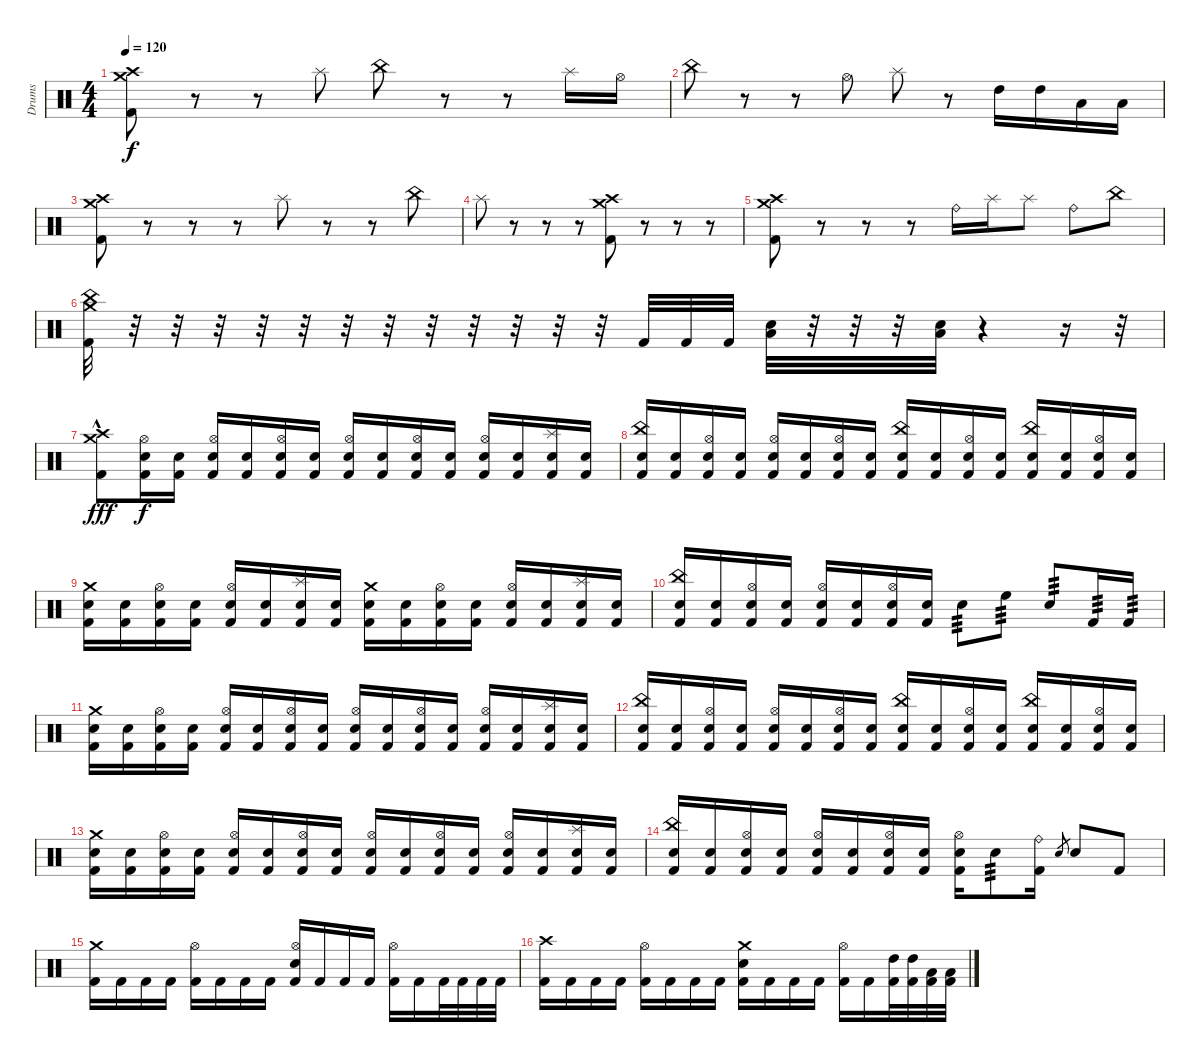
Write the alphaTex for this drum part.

\track ("Drums" "Drums") {instrument percussion}
\staff {score}
\articulation defaults
\ts (4 4)
\tempo 120
\clef neutral
\ks c
("Crash medium (hit)" "Crash high (hit)" "Kick (hit) 2").8{dy f} r.8 r.8 "Splash (hit)".8 "China (hit)".8 r.8 r.8 "Splash (hit)".16 "Hi-Hat (open)".16 |
"China (hit)".8 r.8 r.8 "Hi-Hat (open)".8 "Splash (hit)".8 r.8 "High Tom (hit)".16 "High Tom (hit)".16 "Low Tom (hit)".16 "Low Tom (hit)".16 |
("Crash medium (hit)" "Crash high (hit)" "Kick (hit) 2").8 r.8 r.8 r.8 "Splash (hit)".8 r.8 r.8 "China (hit)".8 |
"Splash (hit)".8 r.8 r.8 r.8 ("Crash medium (hit)" "Crash high (hit)" "Kick (hit) 2").8 r.8 r.8 r.8 |
("Crash medium (hit)" "Crash high (hit)" "Kick (hit) 2").8 r.8 r.8 r.8 "Ride (bell)".16 "Splash (hit)".16 "Splash (hit)".8 "Ride (bell)".8 "China (hit)".8 |
("Crash medium (hit)" "China (hit)" "Kick (hit) 2").32 r.32 r.32 r.32 r.32 r.32 r.32 r.32 r.32 r.32 r.32 r.32 r.32 "Kick (hit) 2".32 "Kick (hit) 2".32 "Kick (hit) 2".32 ("Electric Snare (hit)" "Low Tom (hit)").32 r.32 r.32 r.32 ("Electric Snare (hit)" "Low Tom (hit)").32 r.4 r.16 r.32 |
("Crash high (hit)"{hac} "Crash medium (hit)"{hac} "Kick (hit) 2"{hac}).8{dy fff} ("Hi-Hat (open)" "Electric Snare (hit)" "Kick (hit) 2").16{dy f} ("Electric Snare (hit)" "Kick (hit) 2").16 ("Hi-Hat (open)" "Electric Snare (hit)" "Kick (hit) 2").16 ("Electric Snare (hit)" "Kick (hit) 2").16 ("Hi-Hat (open)" "Electric Snare (hit)" "Kick (hit) 2").16 ("Electric Snare (hit)" "Kick (hit) 2").16 ("Hi-Hat (open)" "Electric Snare (hit)" "Kick (hit) 2").16 ("Electric Snare (hit)" "Kick (hit) 2").16 ("Hi-Hat (open)" "Electric Snare (hit)" "Kick (hit) 2").16 ("Electric Snare (hit)" "Kick (hit) 2").16 ("Hi-Hat (open)" "Electric Snare (hit)" "Kick (hit) 2").16 ("Electric Snare (hit)" "Kick (hit) 2").16 ("Splash (hit)" "Electric Snare (hit)" "Kick (hit) 2").16 ("Electric Snare (hit)" "Kick (hit) 2").16 |
("China (hit)" "Electric Snare (hit)" "Kick (hit) 2").16 ("Electric Snare (hit)" "Kick (hit) 2").16 ("Hi-Hat (open)" "Electric Snare (hit)" "Kick (hit) 2").16 ("Electric Snare (hit)" "Kick (hit) 2").16 ("Hi-Hat (open)" "Electric Snare (hit)" "Kick (hit) 2").16 ("Electric Snare (hit)" "Kick (hit) 2").16 ("Hi-Hat (open)" "Electric Snare (hit)" "Kick (hit) 2").16 ("Electric Snare (hit)" "Kick (hit) 2").16 ("China (hit)" "Electric Snare (hit)" "Kick (hit) 2").16 ("Electric Snare (hit)" "Kick (hit) 2").16 ("Hi-Hat (open)" "Electric Snare (hit)" "Kick (hit) 2").16 ("Electric Snare (hit)" "Kick (hit) 2").16 ("China (hit)" "Electric Snare (hit)" "Kick (hit) 2").16 ("Electric Snare (hit)" "Kick (hit) 2").16 ("Hi-Hat (open)" "Electric Snare (hit)" "Kick (hit) 2").16 ("Electric Snare (hit)" "Kick (hit) 2").16 |
("Crash medium (hit)" "Electric Snare (hit)" "Kick (hit) 2").16 ("Electric Snare (hit)" "Kick (hit) 2").16 ("Hi-Hat (open)" "Electric Snare (hit)" "Kick (hit) 2").16 ("Electric Snare (hit)" "Kick (hit) 2").16 ("Hi-Hat (open)" "Electric Snare (hit)" "Kick (hit) 2").16 ("Electric Snare (hit)" "Kick (hit) 2").16 ("Splash (hit)" "Electric Snare (hit)" "Kick (hit) 2").16 ("Electric Snare (hit)" "Kick (hit) 2").16 ("Crash medium (hit)" "Electric Snare (hit)" "Kick (hit) 2").16 ("Electric Snare (hit)" "Kick (hit) 2").16 ("Hi-Hat (open)" "Electric Snare (hit)" "Kick (hit) 2").16 ("Electric Snare (hit)" "Kick (hit) 2").16 ("Hi-Hat (open)" "Electric Snare (hit)" "Kick (hit) 2").16 ("Electric Snare (hit)" "Kick (hit) 2").16 ("Splash (hit)" "Electric Snare (hit)" "Kick (hit) 2").16 ("Electric Snare (hit)" "Kick (hit) 2").16 |
("China (hit)" "Electric Snare (hit)" "Kick (hit) 2").16 ("Electric Snare (hit)" "Kick (hit) 2").16 ("Hi-Hat (open)" "Electric Snare (hit)" "Kick (hit) 2").16 ("Electric Snare (hit)" "Kick (hit) 2").16 ("Hi-Hat (open)" "Electric Snare (hit)" "Kick (hit) 2").16 ("Electric Snare (hit)" "Kick (hit) 2").16 ("Hi-Hat (open)" "Electric Snare (hit)" "Kick (hit) 2").16 ("Electric Snare (hit)" "Kick (hit) 2").16 "Electric Snare (hit)".8{tp 3} "High Floor Tom (hit)".8{tp 3} "Electric Snare (hit)".8{tp 3} "Kick (hit) 2".16{tp 3} "Kick (hit) 2".16{tp 3} |
("Crash medium (hit)" "Electric Snare (hit)" "Kick (hit) 2").16 ("Electric Snare (hit)" "Kick (hit) 2").16 ("Hi-Hat (open)" "Electric Snare (hit)" "Kick (hit) 2").16 ("Electric Snare (hit)" "Kick (hit) 2").16 ("Hi-Hat (open)" "Electric Snare (hit)" "Kick (hit) 2").16 ("Electric Snare (hit)" "Kick (hit) 2").16 ("Hi-Hat (open)" "Electric Snare (hit)" "Kick (hit) 2").16 ("Electric Snare (hit)" "Kick (hit) 2").16 ("Hi-Hat (open)" "Electric Snare (hit)" "Kick (hit) 2").16 ("Electric Snare (hit)" "Kick (hit) 2").16 ("Hi-Hat (open)" "Electric Snare (hit)" "Kick (hit) 2").16 ("Electric Snare (hit)" "Kick (hit) 2").16 ("Hi-Hat (open)" "Electric Snare (hit)" "Kick (hit) 2").16 ("Electric Snare (hit)" "Kick (hit) 2").16 ("Splash (hit)" "Electric Snare (hit)" "Kick (hit) 2").16 ("Electric Snare (hit)" "Kick (hit) 2").16 |
("China (hit)" "Electric Snare (hit)" "Kick (hit) 2").16 ("Electric Snare (hit)" "Kick (hit) 2").16 ("Hi-Hat (open)" "Electric Snare (hit)" "Kick (hit) 2").16 ("Electric Snare (hit)" "Kick (hit) 2").16 ("Hi-Hat (open)" "Electric Snare (hit)" "Kick (hit) 2").16 ("Electric Snare (hit)" "Kick (hit) 2").16 ("Hi-Hat (open)" "Electric Snare (hit)" "Kick (hit) 2").16 ("Electric Snare (hit)" "Kick (hit) 2").16 ("China (hit)" "Electric Snare (hit)" "Kick (hit) 2").16 ("Electric Snare (hit)" "Kick (hit) 2").16 ("Hi-Hat (open)" "Electric Snare (hit)" "Kick (hit) 2").16 ("Electric Snare (hit)" "Kick (hit) 2").16 ("China (hit)" "Electric Snare (hit)" "Kick (hit) 2").16 ("Electric Snare (hit)" "Kick (hit) 2").16 ("Hi-Hat (open)" "Electric Snare (hit)" "Kick (hit) 2").16 ("Electric Snare (hit)" "Kick (hit) 2").16 |
("Crash medium (hit)" "Electric Snare (hit)" "Kick (hit) 2").16 ("Electric Snare (hit)" "Kick (hit) 2").16 ("Hi-Hat (open)" "Electric Snare (hit)" "Kick (hit) 2").16 ("Electric Snare (hit)" "Kick (hit) 2").16 ("Hi-Hat (open)" "Electric Snare (hit)" "Kick (hit) 2").16 ("Electric Snare (hit)" "Kick (hit) 2").16 ("Hi-Hat (open)" "Electric Snare (hit)" "Kick (hit) 2").16 ("Electric Snare (hit)" "Kick (hit) 2").16 ("Hi-Hat (open)" "Electric Snare (hit)" "Kick (hit) 2").16 ("Electric Snare (hit)" "Kick (hit) 2").16 ("Hi-Hat (open)" "Electric Snare (hit)" "Kick (hit) 2").16 ("Electric Snare (hit)" "Kick (hit) 2").16 ("Hi-Hat (open)" "Electric Snare (hit)" "Kick (hit) 2").16 ("Electric Snare (hit)" "Kick (hit) 2").16 ("Splash (hit)" "Electric Snare (hit)" "Kick (hit) 2").16 ("Electric Snare (hit)" "Kick (hit) 2").16 |
("China (hit)" "Electric Snare (hit)" "Kick (hit) 2").16 ("Electric Snare (hit)" "Kick (hit) 2").16 ("Hi-Hat (open)" "Electric Snare (hit)" "Kick (hit) 2").16 ("Electric Snare (hit)" "Kick (hit) 2").16 ("Hi-Hat (open)" "Electric Snare (hit)" "Kick (hit) 2").16 ("Electric Snare (hit)" "Kick (hit) 2").16 ("Hi-Hat (open)" "Electric Snare (hit)" "Kick (hit) 2").16 ("Electric Snare (hit)" "Kick (hit) 2").16 ("Hi-Hat (open)" "Electric Snare (hit)" "Kick (hit) 2").16 "Electric Snare (hit)".8{tp 3} ("Ride (bell)" "Kick (hit) 2").16 "Electric Snare (hit)".8{gr} "Electric Snare (hit)".8 "Kick (hit) 2".8 |
("Crash medium (hit)" "Kick (hit) 2").16 "Kick (hit) 2".16 "Kick (hit) 2".16 "Kick (hit) 2".16 ("Hi-Hat (open)" "Kick (hit) 2").16 "Kick (hit) 2".16 "Kick (hit) 2".16 "Kick (hit) 2".16 ("Hi-Hat (open)" "Electric Snare (hit)" "Kick (hit) 2").16 "Kick (hit) 2".16 "Kick (hit) 2".16 "Kick (hit) 2".16 ("Hi-Hat (open)" "Kick (hit) 2").16 "Kick (hit) 2".16 "Kick (hit) 2".32 "Kick (hit) 2".32 "Kick (hit) 2".32 "Kick (hit) 2".32 |
("Crash high (hit)" "Kick (hit) 2").16 "Kick (hit) 2".16 "Kick (hit) 2".16 "Kick (hit) 2".16 ("Hi-Hat (open)" "Kick (hit) 2").16 "Kick (hit) 2".16 "Kick (hit) 2".16 "Kick (hit) 2".16 ("Crash medium (hit)" "Electric Snare (hit)" "Kick (hit) 2").16 "Kick (hit) 2".16 "Kick (hit) 2".16 "Kick (hit) 2".16 ("Hi-Hat (open)" "Kick (hit) 2").16 "Kick (hit) 2".16 ("High Tom (hit)" "Kick (hit) 2").32 ("High Tom (hit)" "Kick (hit) 2").32 ("Low Tom (hit)" "Kick (hit) 2").32 ("Low Tom (hit)" "Kick (hit) 2").32
